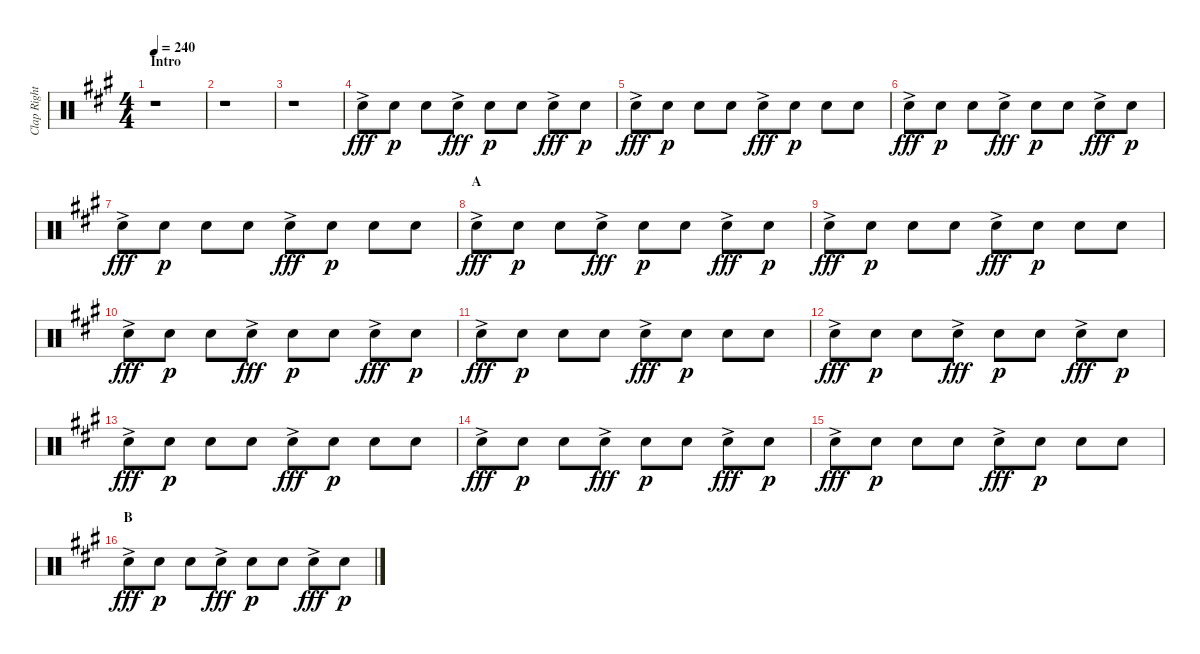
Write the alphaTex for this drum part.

\track ("Clap Right" "Clap Right") {instrument percussion}
\staff {score}
\articulation defaults
\ts (4 4)
\section ("" "Intro")
\tempo 240
\clef neutral
\ks a
r.1{dy fff} |
r.1 |
r.1 |
"Hand Clap (hit)"{ac}.8{volume 16 balance 8} "Hand Clap (hit)".8{dy p} "Hand Clap (hit)".8 "Hand Clap (hit)"{ac}.8{dy fff} "Hand Clap (hit)".8{dy p} "Hand Clap (hit)".8 "Hand Clap (hit)"{ac}.8{dy fff} "Hand Clap (hit)".8{dy p} |
"Hand Clap (hit)"{ac}.8{dy fff} "Hand Clap (hit)".8{dy p} "Hand Clap (hit)".8 "Hand Clap (hit)".8 "Hand Clap (hit)"{ac}.8{dy fff} "Hand Clap (hit)".8{dy p} "Hand Clap (hit)".8 "Hand Clap (hit)".8 |
"Hand Clap (hit)"{ac}.8{dy fff} "Hand Clap (hit)".8{dy p} "Hand Clap (hit)".8 "Hand Clap (hit)"{ac}.8{dy fff} "Hand Clap (hit)".8{dy p} "Hand Clap (hit)".8 "Hand Clap (hit)"{ac}.8{dy fff} "Hand Clap (hit)".8{dy p} |
"Hand Clap (hit)"{ac}.8{dy fff} "Hand Clap (hit)".8{dy p} "Hand Clap (hit)".8 "Hand Clap (hit)".8 "Hand Clap (hit)"{ac}.8{dy fff} "Hand Clap (hit)".8{dy p} "Hand Clap (hit)".8 "Hand Clap (hit)".8 |
\section ("" "A")
"Hand Clap (hit)"{ac}.8{dy fff} "Hand Clap (hit)".8{dy p} "Hand Clap (hit)".8 "Hand Clap (hit)"{ac}.8{dy fff} "Hand Clap (hit)".8{dy p} "Hand Clap (hit)".8 "Hand Clap (hit)"{ac}.8{dy fff} "Hand Clap (hit)".8{dy p} |
"Hand Clap (hit)"{ac}.8{dy fff} "Hand Clap (hit)".8{dy p} "Hand Clap (hit)".8 "Hand Clap (hit)".8 "Hand Clap (hit)"{ac}.8{dy fff} "Hand Clap (hit)".8{dy p} "Hand Clap (hit)".8 "Hand Clap (hit)".8 |
"Hand Clap (hit)"{ac}.8{dy fff} "Hand Clap (hit)".8{dy p} "Hand Clap (hit)".8 "Hand Clap (hit)"{ac}.8{dy fff} "Hand Clap (hit)".8{dy p} "Hand Clap (hit)".8 "Hand Clap (hit)"{ac}.8{dy fff} "Hand Clap (hit)".8{dy p} |
"Hand Clap (hit)"{ac}.8{dy fff} "Hand Clap (hit)".8{dy p} "Hand Clap (hit)".8 "Hand Clap (hit)".8 "Hand Clap (hit)"{ac}.8{dy fff} "Hand Clap (hit)".8{dy p} "Hand Clap (hit)".8 "Hand Clap (hit)".8 |
"Hand Clap (hit)"{ac}.8{dy fff} "Hand Clap (hit)".8{dy p} "Hand Clap (hit)".8 "Hand Clap (hit)"{ac}.8{dy fff} "Hand Clap (hit)".8{dy p} "Hand Clap (hit)".8 "Hand Clap (hit)"{ac}.8{dy fff} "Hand Clap (hit)".8{dy p} |
"Hand Clap (hit)"{ac}.8{dy fff} "Hand Clap (hit)".8{dy p} "Hand Clap (hit)".8 "Hand Clap (hit)".8 "Hand Clap (hit)"{ac}.8{dy fff} "Hand Clap (hit)".8{dy p} "Hand Clap (hit)".8 "Hand Clap (hit)".8 |
"Hand Clap (hit)"{ac}.8{dy fff} "Hand Clap (hit)".8{dy p} "Hand Clap (hit)".8 "Hand Clap (hit)"{ac}.8{dy fff} "Hand Clap (hit)".8{dy p} "Hand Clap (hit)".8 "Hand Clap (hit)"{ac}.8{dy fff} "Hand Clap (hit)".8{dy p} |
"Hand Clap (hit)"{ac}.8{dy fff} "Hand Clap (hit)".8{dy p} "Hand Clap (hit)".8 "Hand Clap (hit)".8 "Hand Clap (hit)"{ac}.8{dy fff} "Hand Clap (hit)".8{dy p} "Hand Clap (hit)".8 "Hand Clap (hit)".8 |
\section ("" "B")
"Hand Clap (hit)"{ac}.8{dy fff} "Hand Clap (hit)".8{dy p} "Hand Clap (hit)".8 "Hand Clap (hit)"{ac}.8{dy fff} "Hand Clap (hit)".8{dy p} "Hand Clap (hit)".8 "Hand Clap (hit)"{ac}.8{dy fff} "Hand Clap (hit)".8{dy p}
